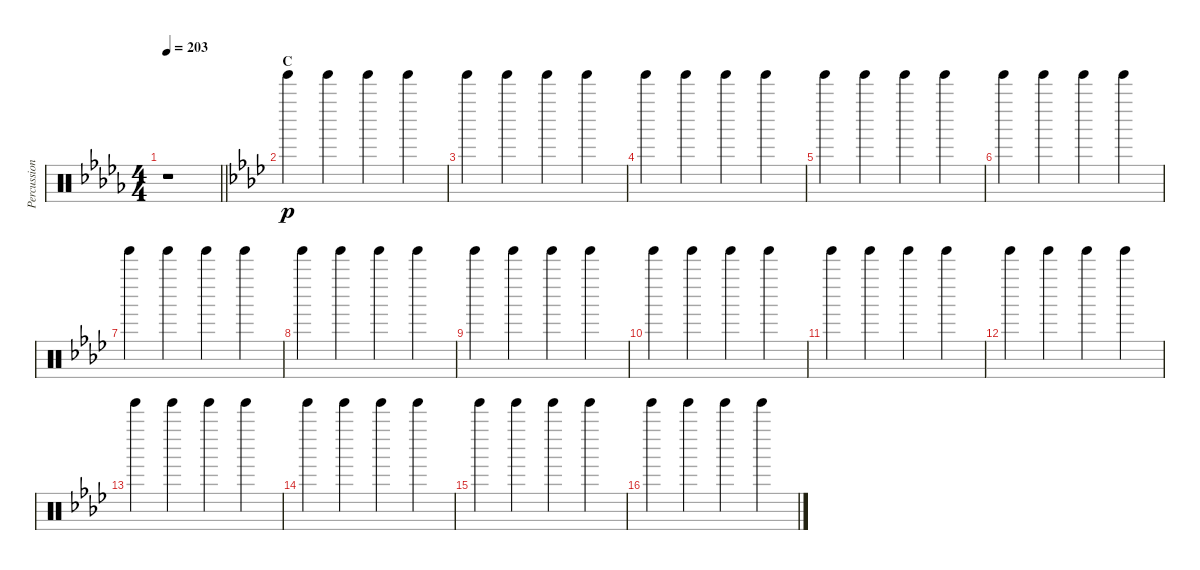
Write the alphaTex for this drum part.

\track ("Percussion" "Percussion") {instrument percussion}
\staff {score}
\articulation defaults
\ts (4 4)
\tempo 203
\clef neutral
\barLineRight lightlight
\ks db
r.1{dy p} |
\section ("" "C")
\ks ab "Tinkle Bell (hit)".4 "Tinkle Bell (hit)".4 "Tinkle Bell (hit)".4 "Tinkle Bell (hit)".4
|
"Tinkle Bell (hit)".4 "Tinkle Bell (hit)".4 "Tinkle Bell (hit)".4 "Tinkle Bell (hit)".4 |
"Tinkle Bell (hit)".4 "Tinkle Bell (hit)".4 "Tinkle Bell (hit)".4 "Tinkle Bell (hit)".4 |
"Tinkle Bell (hit)".4 "Tinkle Bell (hit)".4 "Tinkle Bell (hit)".4 "Tinkle Bell (hit)".4 |
"Tinkle Bell (hit)".4 "Tinkle Bell (hit)".4 "Tinkle Bell (hit)".4 "Tinkle Bell (hit)".4 |
"Tinkle Bell (hit)".4 "Tinkle Bell (hit)".4 "Tinkle Bell (hit)".4 "Tinkle Bell (hit)".4 |
"Tinkle Bell (hit)".4 "Tinkle Bell (hit)".4 "Tinkle Bell (hit)".4 "Tinkle Bell (hit)".4 |
"Tinkle Bell (hit)".4 "Tinkle Bell (hit)".4 "Tinkle Bell (hit)".4 "Tinkle Bell (hit)".4 |
"Tinkle Bell (hit)".4 "Tinkle Bell (hit)".4 "Tinkle Bell (hit)".4 "Tinkle Bell (hit)".4 |
"Tinkle Bell (hit)".4 "Tinkle Bell (hit)".4 "Tinkle Bell (hit)".4 "Tinkle Bell (hit)".4 |
"Tinkle Bell (hit)".4 "Tinkle Bell (hit)".4 "Tinkle Bell (hit)".4 "Tinkle Bell (hit)".4 |
"Tinkle Bell (hit)".4 "Tinkle Bell (hit)".4 "Tinkle Bell (hit)".4 "Tinkle Bell (hit)".4 |
"Tinkle Bell (hit)".4 "Tinkle Bell (hit)".4 "Tinkle Bell (hit)".4 "Tinkle Bell (hit)".4 |
"Tinkle Bell (hit)".4 "Tinkle Bell (hit)".4 "Tinkle Bell (hit)".4 "Tinkle Bell (hit)".4 |
"Tinkle Bell (hit)".4 "Tinkle Bell (hit)".4 "Tinkle Bell (hit)".4 "Tinkle Bell (hit)".4
